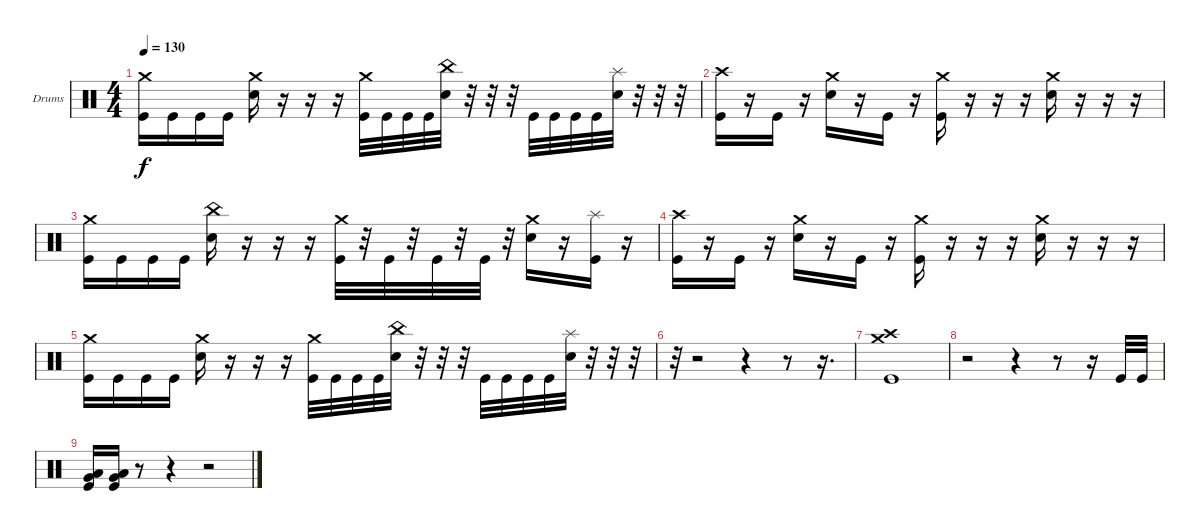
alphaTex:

\defaultSystemsLayout 4
\bracketExtendMode groupsimilarinstruments
\firstSystemTrackNameOrientation horizontal
\otherSystemsTrackNameOrientation horizontal
\track ("Drumkit" "Drums") {instrument percussion}
\staff {score}
\articulation defaults
\ts (4 4)
\tempo 130
\clef neutral
\scale
0.333333
\ks c
("Kick (hit)" "Crash medium (hit)").16{dy f} "Kick (hit)".16 "Kick (hit)".16 "Kick (hit)".16 ("Snare (hit) 2" "Crash medium (hit)").16 r.16 r.16 r.16 ("Kick (hit)" "Crash medium (hit)").32 "Kick (hit)".32 "Kick (hit)".32 "Kick (hit)".32 ("Snare (hit) 2" "China (hit)").32 r.32 r.32 r.32 "Kick (hit)".32 "Kick (hit)".32 "Kick (hit)".32 "Kick (hit)".32 ("Snare (hit) 2" "Splash (hit)").32 r.32 r.32 r.32 |
\scale
0.333333 ("Kick (hit)" "Crash high (hit)").16 r.16 "Kick (hit)".16 r.16 ("Snare (hit) 2" "Crash medium (hit)").16 r.16 "Kick (hit)".16 r.16 ("Kick (hit)" "Crash medium (hit)").16 r.16 r.16 r.16 ("Snare (hit) 2" "Crash medium (hit)").16 r.16 r.16 r.16 |
\scale
0.333333 ("Kick (hit)" "Crash medium (hit)").16 "Kick (hit)".16 "Kick (hit)".16 "Kick (hit)".16 ("Snare (hit) 2" "China (hit)").16 r.16 r.16 r.16 ("Kick (hit)" "Crash medium (hit)").32 r.32 "Kick (hit)".32 r.32 "Kick (hit)".32 r.32 "Kick (hit)".32 r.32 ("Snare (hit) 2" "Crash medium (hit)").16 r.16 ("Kick (hit)" "Splash (hit)").16 r.16 |
\scale
0.333333 ("Kick (hit)" "Crash high (hit)").16 r.16 "Kick (hit)".16 r.16 ("Snare (hit) 2" "Crash medium (hit)").16 r.16 "Kick (hit)".16 r.16 ("Kick (hit)" "Crash medium (hit)").16 r.16 r.16 r.16 ("Snare (hit) 2" "Crash medium (hit)").16 r.16 r.16 r.16 |
\scale
0.333333 ("Kick (hit)" "Crash medium (hit)").16 "Kick (hit)".16 "Kick (hit)".16 "Kick (hit)".16 ("Snare (hit) 2" "Crash medium (hit)").16 r.16 r.16 r.16 ("Kick (hit)" "Crash medium (hit)").32 "Kick (hit)".32 "Kick (hit)".32 "Kick (hit)".32 ("Snare (hit) 2" "China (hit)").32 r.32 r.32 r.32 "Kick (hit)".32 "Kick (hit)".32 "Kick (hit)".32 "Kick (hit)".32 ("Snare (hit) 2" "Splash (hit)").32 r.32 r.32 r.32 |
\scale
0.333333 r.32 r.2 r.4 r.8 r.16{d} |
("Kick (hit)" "Crash medium (hit)" "Crash high (hit)").1 |
r.2 r.4 r.8 r.16 "Kick (hit)".32 "Kick (hit)".32 |
("Kick (hit)" "Very Low Tom (hit)" "Low Tom (hit)").16 ("Kick (hit)" "Very Low Tom (hit)" "Low Tom (hit)").16 r.8 r.4 r.2
